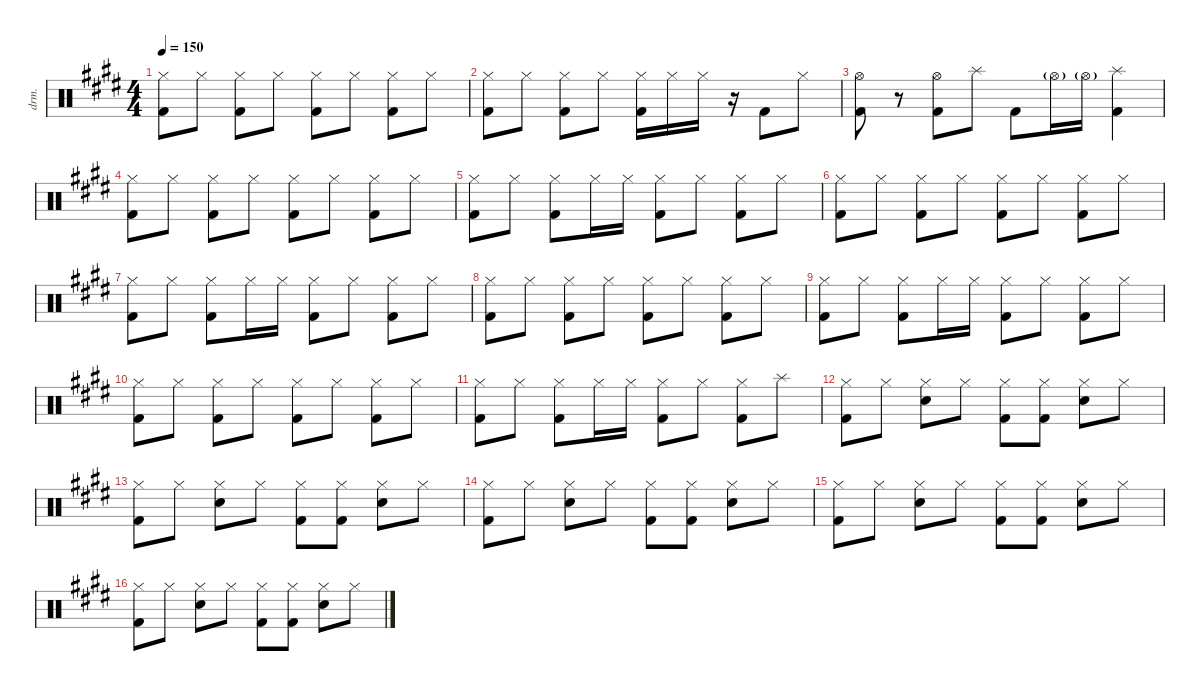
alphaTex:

\defaultSystemsLayout 4
\hideDynamics
\bracketExtendMode nobrackets
\track (" (Drums)" "drm.") {instrument percussion}
\staff {score}
\articulation defaults
\ts (4 4)
\tempo 150
\clef neutral
\ks c#minor
("Hi-Hat (closed)"{acc forcenatural} "Kick (hit) 2"{acc forcenatural}).8{dy f} "Hi-Hat (closed)"{acc forcenatural}.8 ("Hi-Hat (closed)"{acc forcenatural} "Kick (hit) 2"{acc forcenatural}).8 "Hi-Hat (closed)"{acc forcenatural}.8 ("Hi-Hat (closed)"{acc forcenatural} "Kick (hit) 2"{acc forcenatural}).8 "Hi-Hat (closed)"{acc forcenatural}.8 ("Hi-Hat (closed)"{acc forcenatural} "Kick (hit) 2"{acc forcenatural}).8 "Hi-Hat (closed)"{acc forcenatural}.8 |
("Hi-Hat (closed)"{acc forcenatural} "Kick (hit) 2"{acc forcenatural}).8 "Hi-Hat (closed)"{acc forcenatural}.8 ("Hi-Hat (closed)"{acc forcenatural} "Kick (hit) 2"{acc forcenatural}).8 "Hi-Hat (closed)"{acc forcenatural}.8 ("Hi-Hat (closed)"{acc forcenatural} "Kick (hit) 2"{acc forcenatural}).16 "Hi-Hat (closed)"{acc forcenatural}.16 "Hi-Hat (closed)"{acc forcenatural}.16 r.16 "Kick (hit) 2"{acc forcenatural}.8 "Hi-Hat (closed)"{acc forcenatural}.8 |
("Hi-Hat (open)"{acc forcenatural} "Kick (hit) 2"{acc forcenatural}).8 r.8 ("Hi-Hat (open)"{acc forcenatural} "Kick (hit) 2"{acc forcenatural}).8 "Splash (hit)"{acc forcenatural}.8 "Kick (hit) 2"{acc forcenatural}.8 "Hi-Hat (open)"{g acc forcenatural}.16{dy mf} "Hi-Hat (open)"{g acc forcenatural}.16 ("Splash (hit)"{acc forcenatural} "Kick (hit) 2"{acc forcenatural}).4{dy f} |
("Hi-Hat (closed)"{acc forcenatural} "Kick (hit) 2"{acc forcenatural}).8 "Hi-Hat (closed)"{acc forcenatural}.8 ("Hi-Hat (closed)"{acc forcenatural} "Kick (hit) 2"{acc forcenatural}).8 "Hi-Hat (closed)"{acc forcenatural}.8 ("Hi-Hat (closed)"{acc forcenatural} "Kick (hit) 2"{acc forcenatural}).8 "Hi-Hat (closed)"{acc forcenatural}.8 ("Hi-Hat (closed)"{acc forcenatural} "Kick (hit) 2"{acc forcenatural}).8 "Hi-Hat (closed)"{acc forcenatural}.8 |
("Hi-Hat (closed)"{acc forcenatural} "Kick (hit) 2"{acc forcenatural}).8 "Hi-Hat (closed)"{acc forcenatural}.8 ("Hi-Hat (closed)"{acc forcenatural} "Kick (hit) 2"{acc forcenatural}).8 "Hi-Hat (closed)"{acc forcenatural}.16 "Hi-Hat (closed)"{acc forcenatural}.16 ("Hi-Hat (closed)"{acc forcenatural} "Kick (hit) 2"{acc forcenatural}).8 "Hi-Hat (closed)"{acc forcenatural}.8 ("Hi-Hat (closed)"{acc forcenatural} "Kick (hit) 2"{acc forcenatural}).8 "Hi-Hat (closed)"{acc forcenatural}.8 |
("Hi-Hat (closed)"{acc forcenatural} "Kick (hit) 2"{acc forcenatural}).8 "Hi-Hat (closed)"{acc forcenatural}.8 ("Hi-Hat (closed)"{acc forcenatural} "Kick (hit) 2"{acc forcenatural}).8 "Hi-Hat (closed)"{acc forcenatural}.8 ("Hi-Hat (closed)"{acc forcenatural} "Kick (hit) 2"{acc forcenatural}).8 "Hi-Hat (closed)"{acc forcenatural}.8 ("Hi-Hat (closed)"{acc forcenatural} "Kick (hit) 2"{acc forcenatural}).8 "Hi-Hat (closed)"{acc forcenatural}.8 |
("Hi-Hat (closed)"{acc forcenatural} "Kick (hit) 2"{acc forcenatural}).8 "Hi-Hat (closed)"{acc forcenatural}.8 ("Hi-Hat (closed)"{acc forcenatural} "Kick (hit) 2"{acc forcenatural}).8 "Hi-Hat (closed)"{acc forcenatural}.16 "Hi-Hat (closed)"{acc forcenatural}.16 ("Hi-Hat (closed)"{acc forcenatural} "Kick (hit) 2"{acc forcenatural}).8 "Hi-Hat (closed)"{acc forcenatural}.8 ("Hi-Hat (closed)"{acc forcenatural} "Kick (hit) 2"{acc forcenatural}).8 "Hi-Hat (closed)"{acc forcenatural}.8 |
("Hi-Hat (closed)"{acc forcenatural} "Kick (hit) 2"{acc forcenatural}).8 "Hi-Hat (closed)"{acc forcenatural}.8 ("Hi-Hat (closed)"{acc forcenatural} "Kick (hit) 2"{acc forcenatural}).8 "Hi-Hat (closed)"{acc forcenatural}.8 ("Hi-Hat (closed)"{acc forcenatural} "Kick (hit) 2"{acc forcenatural}).8 "Hi-Hat (closed)"{acc forcenatural}.8 ("Hi-Hat (closed)"{acc forcenatural} "Kick (hit) 2"{acc forcenatural}).8 "Hi-Hat (closed)"{acc forcenatural}.8 |
("Hi-Hat (closed)"{acc forcenatural} "Kick (hit) 2"{acc forcenatural}).8 "Hi-Hat (closed)"{acc forcenatural}.8 ("Hi-Hat (closed)"{acc forcenatural} "Kick (hit) 2"{acc forcenatural}).8 "Hi-Hat (closed)"{acc forcenatural}.16 "Hi-Hat (closed)"{acc forcenatural}.16 ("Hi-Hat (closed)"{acc forcenatural} "Kick (hit) 2"{acc forcenatural}).8 "Hi-Hat (closed)"{acc forcenatural}.8 ("Hi-Hat (closed)"{acc forcenatural} "Kick (hit) 2"{acc forcenatural}).8 "Hi-Hat (closed)"{acc forcenatural}.8 |
("Hi-Hat (closed)"{acc forcenatural} "Kick (hit) 2"{acc forcenatural}).8 "Hi-Hat (closed)"{acc forcenatural}.8 ("Hi-Hat (closed)"{acc forcenatural} "Kick (hit) 2"{acc forcenatural}).8 "Hi-Hat (closed)"{acc forcenatural}.8 ("Hi-Hat (closed)"{acc forcenatural} "Kick (hit) 2"{acc forcenatural}).8 "Hi-Hat (closed)"{acc forcenatural}.8 ("Hi-Hat (closed)"{acc forcenatural} "Kick (hit) 2"{acc forcenatural}).8 "Hi-Hat (closed)"{acc forcenatural}.8 |
("Hi-Hat (closed)"{acc forcenatural} "Kick (hit) 2"{acc forcenatural}).8 "Hi-Hat (closed)"{acc forcenatural}.8 ("Hi-Hat (closed)"{acc forcenatural} "Kick (hit) 2"{acc forcenatural}).8 "Hi-Hat (closed)"{acc forcenatural}.16 "Hi-Hat (closed)"{acc forcenatural}.16 ("Hi-Hat (closed)"{acc forcenatural} "Kick (hit) 2"{acc forcenatural}).8 "Hi-Hat (closed)"{acc forcenatural}.8 ("Hi-Hat (closed)"{acc forcenatural} "Kick (hit) 2"{acc forcenatural}).8 "Splash (hit)"{acc forcenatural}.8 |
("Hi-Hat (closed)"{acc forcenatural} "Kick (hit) 2"{acc forcenatural}).8 "Hi-Hat (closed)"{acc forcenatural}.8 ("Hi-Hat (closed)"{acc forcenatural} "Snare (hit) 2"{acc forcenatural}).8 "Hi-Hat (closed)"{acc forcenatural}.8 ("Hi-Hat (closed)"{acc forcenatural} "Kick (hit) 2"{acc forcenatural}).8 ("Hi-Hat (closed)"{acc forcenatural} "Kick (hit) 2"{acc forcenatural}).8 ("Hi-Hat (closed)"{acc forcenatural} "Snare (hit) 2"{acc forcenatural}).8 "Hi-Hat (closed)"{acc forcenatural}.8 |
("Hi-Hat (closed)"{acc forcenatural} "Kick (hit) 2"{acc forcenatural}).8 "Hi-Hat (closed)"{acc forcenatural}.8 ("Hi-Hat (closed)"{acc forcenatural} "Snare (hit) 2"{acc forcenatural}).8 "Hi-Hat (closed)"{acc forcenatural}.8 ("Hi-Hat (closed)"{acc forcenatural} "Kick (hit) 2"{acc forcenatural}).8 ("Hi-Hat (closed)"{acc forcenatural} "Kick (hit) 2"{acc forcenatural}).8 ("Hi-Hat (closed)"{acc forcenatural} "Snare (hit) 2"{acc forcenatural}).8 "Hi-Hat (closed)"{acc forcenatural}.8 |
("Hi-Hat (closed)"{acc forcenatural} "Kick (hit) 2"{acc forcenatural}).8 "Hi-Hat (closed)"{acc forcenatural}.8 ("Hi-Hat (closed)"{acc forcenatural} "Snare (hit) 2"{acc forcenatural}).8 "Hi-Hat (closed)"{acc forcenatural}.8 ("Hi-Hat (closed)"{acc forcenatural} "Kick (hit) 2"{acc forcenatural}).8 ("Hi-Hat (closed)"{acc forcenatural} "Kick (hit) 2"{acc forcenatural}).8 ("Hi-Hat (closed)"{acc forcenatural} "Snare (hit) 2"{acc forcenatural}).8 "Hi-Hat (closed)"{acc forcenatural}.8 |
("Hi-Hat (closed)"{acc forcenatural} "Kick (hit) 2"{acc forcenatural}).8 "Hi-Hat (closed)"{acc forcenatural}.8 ("Hi-Hat (closed)"{acc forcenatural} "Snare (hit) 2"{acc forcenatural}).8 "Hi-Hat (closed)"{acc forcenatural}.8 ("Hi-Hat (closed)"{acc forcenatural} "Kick (hit) 2"{acc forcenatural}).8 ("Hi-Hat (closed)"{acc forcenatural} "Kick (hit) 2"{acc forcenatural}).8 ("Hi-Hat (closed)"{acc forcenatural} "Snare (hit) 2"{acc forcenatural}).8 "Hi-Hat (closed)"{acc forcenatural}.8 |
("Hi-Hat (closed)"{acc forcenatural} "Kick (hit) 2"{acc forcenatural}).8 "Hi-Hat (closed)"{acc forcenatural}.8 ("Hi-Hat (closed)"{acc forcenatural} "Snare (hit) 2"{acc forcenatural}).8 "Hi-Hat (closed)"{acc forcenatural}.8 ("Hi-Hat (closed)"{acc forcenatural} "Kick (hit) 2"{acc forcenatural}).8 ("Hi-Hat (closed)"{acc forcenatural} "Kick (hit) 2"{acc forcenatural}).8 ("Hi-Hat (closed)"{acc forcenatural} "Snare (hit) 2"{acc forcenatural}).8 "Hi-Hat (closed)"{acc forcenatural}.8
